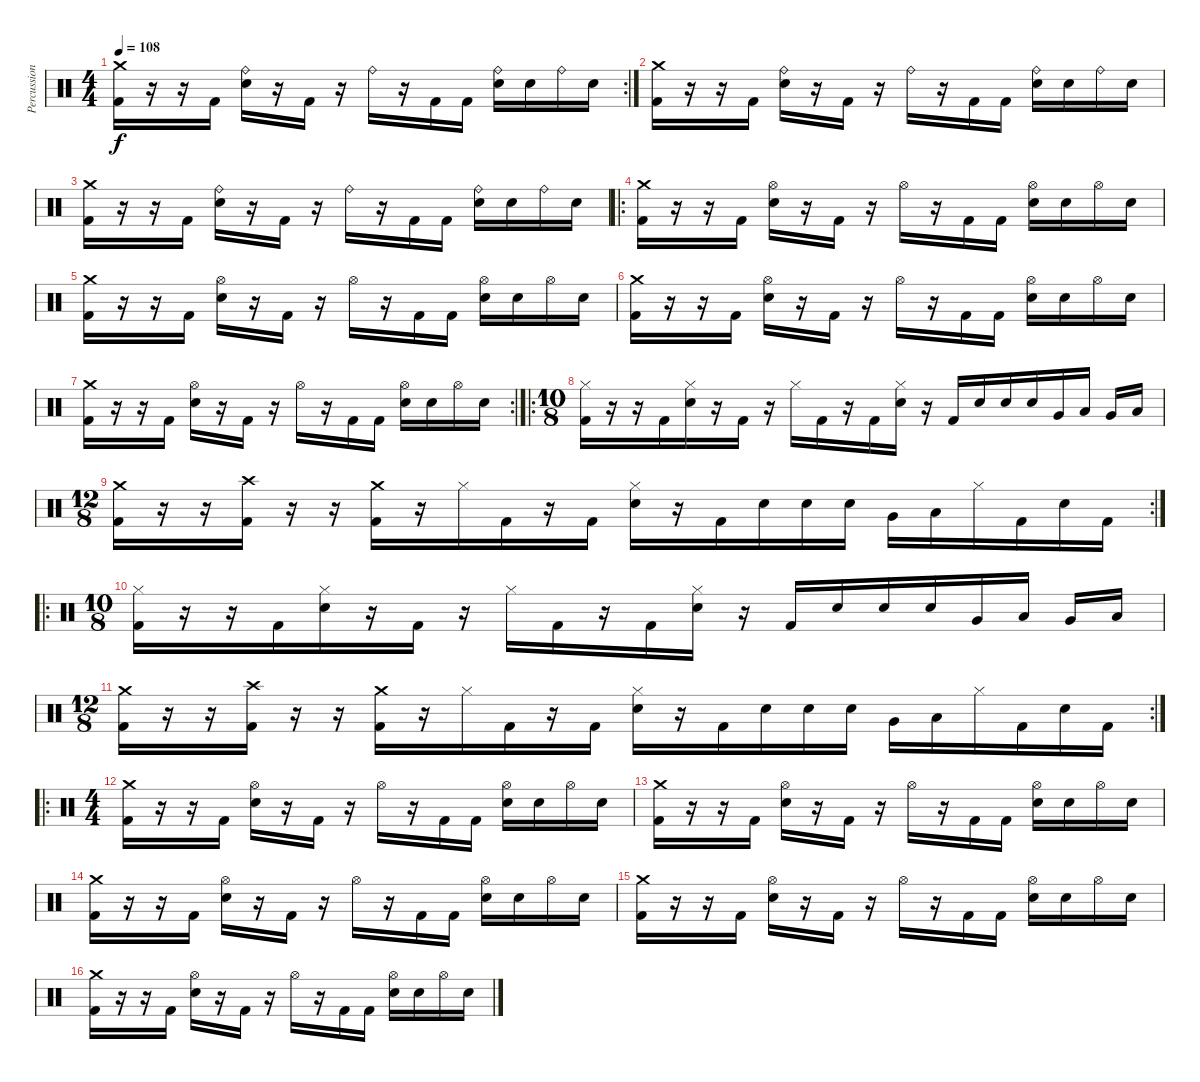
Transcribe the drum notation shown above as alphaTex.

\track ("Percussions" "Percussion") {instrument percussion}
\staff {score}
\articulation defaults
\rc 2
\ts (4 4)
\tempo 108
\clef neutral
\ks c
("Kick (hit) 2" "Crash medium (hit)").16{dy f} r.16 r.16 "Kick (hit) 2".16 ("Electric Snare (hit)" "Ride (bell)").16 r.16 "Kick (hit) 2".16 r.16 "Ride (bell)".16 r.16 "Kick (hit) 2".16 "Kick (hit) 2".16 ("Electric Snare (hit)" "Ride (bell)").16 "Electric Snare (hit)".16 "Ride (bell)".16 "Electric Snare (hit)".16 |
("Kick (hit) 2" "Crash medium (hit)").16 r.16 r.16 "Kick (hit) 2".16 ("Electric Snare (hit)" "Ride (bell)").16 r.16 "Kick (hit) 2".16 r.16 "Ride (bell)".16 r.16 "Kick (hit) 2".16 "Kick (hit) 2".16 ("Electric Snare (hit)" "Ride (bell)").16 "Electric Snare (hit)".16 "Ride (bell)".16 "Electric Snare (hit)".16 |
("Kick (hit) 2" "Crash medium (hit)").16 r.16 r.16 "Kick (hit) 2".16 ("Electric Snare (hit)" "Ride (bell)").16 r.16 "Kick (hit) 2".16 r.16 "Ride (bell)".16 r.16 "Kick (hit) 2".16 "Kick (hit) 2".16 ("Electric Snare (hit)" "Ride (bell)").16 "Electric Snare (hit)".16 "Ride (bell)".16 "Electric Snare (hit)".16 |
\ro
("Kick (hit) 2" "Crash medium (hit)").16 r.16 r.16 "Kick (hit) 2".16 ("Electric Snare (hit)" "Hi-Hat (open)").16 r.16 "Kick (hit) 2".16 r.16 "Hi-Hat (open)".16 r.16 "Kick (hit) 2".16 "Kick (hit) 2".16 ("Electric Snare (hit)" "Hi-Hat (open)").16 "Electric Snare (hit)".16 "Hi-Hat (open)".16 "Electric Snare (hit)".16 |
("Kick (hit) 2" "Crash medium (hit)").16 r.16 r.16 "Kick (hit) 2".16 ("Electric Snare (hit)" "Hi-Hat (open)").16 r.16 "Kick (hit) 2".16 r.16 "Hi-Hat (open)".16 r.16 "Kick (hit) 2".16 "Kick (hit) 2".16 ("Electric Snare (hit)" "Hi-Hat (open)").16 "Electric Snare (hit)".16 "Hi-Hat (open)".16 "Electric Snare (hit)".16 |
("Kick (hit) 2" "Crash medium (hit)").16 r.16 r.16 "Kick (hit) 2".16 ("Electric Snare (hit)" "Hi-Hat (open)").16 r.16 "Kick (hit) 2".16 r.16 "Hi-Hat (open)".16 r.16 "Kick (hit) 2".16 "Kick (hit) 2".16 ("Electric Snare (hit)" "Hi-Hat (open)").16 "Electric Snare (hit)".16 "Hi-Hat (open)".16 "Electric Snare (hit)".16 |
\rc 2
("Kick (hit) 2" "Crash medium (hit)").16 r.16 r.16 "Kick (hit) 2".16 ("Electric Snare (hit)" "Hi-Hat (open)").16 r.16 "Kick (hit) 2".16 r.16 "Hi-Hat (open)".16 r.16 "Kick (hit) 2".16 "Kick (hit) 2".16 ("Electric Snare (hit)" "Hi-Hat (open)").16 "Electric Snare (hit)".16 "Hi-Hat (open)".16 "Electric Snare (hit)".16 |
\ro
\ts (10 8)
("Kick (hit) 2" "Hi-Hat (closed)").16 r.16 r.16 "Kick (hit) 2".16 ("Electric Snare (hit)" "Hi-Hat (closed)").16 r.16 "Kick (hit) 2".16 r.16 "Hi-Hat (closed)".16 "Kick (hit) 2".16 r.16 "Kick (hit) 2".16 ("Electric Snare (hit)" "Hi-Hat (closed)").16 r.16 "Kick (hit) 2".16 "Electric Snare (hit)".16 "Electric Snare (hit)".16 "Electric Snare (hit)".16 "Very Low Tom (hit)".16 "Low Floor Tom (hit)".16 "Very Low Tom (hit)".16 "Low Tom (hit)".16 |
\rc 2
\ts (12 8)
("Crash medium (hit)" "Kick (hit) 2").16 r.16 r.16 ("Crash high (hit)" "Kick (hit) 2").16 r.16 r.16 ("Kick (hit) 2" "Crash medium (hit)").16 r.16 "Hi-Hat (closed)".16 "Kick (hit) 2".16 r.16 "Kick (hit) 2".16 ("Electric Snare (hit)" "Hi-Hat (closed)").16 r.16 "Kick (hit) 2".16 "Electric Snare (hit)".16 "Electric Snare (hit)".16 "Electric Snare (hit)".16 "Very Low Tom (hit)".16 "Low Floor Tom (hit)".16 "Hi-Hat (closed)".16 "Kick (hit) 2".16 "Electric Snare (hit)".16 "Kick (hit) 2".16 |
\ro
\ts (10 8)
("Kick (hit) 2" "Hi-Hat (closed)").16 r.16 r.16 "Kick (hit) 2".16 ("Electric Snare (hit)" "Hi-Hat (closed)").16 r.16 "Kick (hit) 2".16 r.16 "Hi-Hat (closed)".16 "Kick (hit) 2".16 r.16 "Kick (hit) 2".16 ("Electric Snare (hit)" "Hi-Hat (closed)").16 r.16 "Kick (hit) 2".16 "Electric Snare (hit)".16 "Electric Snare (hit)".16 "Electric Snare (hit)".16 "Very Low Tom (hit)".16 "Low Floor Tom (hit)".16 "Very Low Tom (hit)".16 "Low Tom (hit)".16 |
\rc 2
\ts (12 8)
("Crash medium (hit)" "Kick (hit) 2").16 r.16 r.16 ("Crash high (hit)" "Kick (hit) 2").16 r.16 r.16 ("Kick (hit) 2" "Crash medium (hit)").16 r.16 "Hi-Hat (closed)".16 "Kick (hit) 2".16 r.16 "Kick (hit) 2".16 ("Electric Snare (hit)" "Hi-Hat (closed)").16 r.16 "Kick (hit) 2".16 "Electric Snare (hit)".16 "Electric Snare (hit)".16 "Electric Snare (hit)".16 "Very Low Tom (hit)".16 "Low Floor Tom (hit)".16 "Hi-Hat (closed)".16 "Kick (hit) 2".16 "Electric Snare (hit)".16 "Kick (hit) 2".16 |
\ro
\ts (4 4)
("Kick (hit) 2" "Crash medium (hit)").16 r.16 r.16 "Kick (hit) 2".16 ("Electric Snare (hit)" "Hi-Hat (open)").16 r.16 "Kick (hit) 2".16 r.16 "Hi-Hat (open)".16 r.16 "Kick (hit) 2".16 "Kick (hit) 2".16 ("Electric Snare (hit)" "Hi-Hat (open)").16 "Electric Snare (hit)".16 "Hi-Hat (open)".16 "Electric Snare (hit)".16 |
("Kick (hit) 2" "Crash medium (hit)").16 r.16 r.16 "Kick (hit) 2".16 ("Electric Snare (hit)" "Hi-Hat (open)").16 r.16 "Kick (hit) 2".16 r.16 "Hi-Hat (open)".16 r.16 "Kick (hit) 2".16 "Kick (hit) 2".16 ("Electric Snare (hit)" "Hi-Hat (open)").16 "Electric Snare (hit)".16 "Hi-Hat (open)".16 "Electric Snare (hit)".16 |
("Kick (hit) 2" "Crash medium (hit)").16 r.16 r.16 "Kick (hit) 2".16 ("Electric Snare (hit)" "Hi-Hat (open)").16 r.16 "Kick (hit) 2".16 r.16 "Hi-Hat (open)".16 r.16 "Kick (hit) 2".16 "Kick (hit) 2".16 ("Electric Snare (hit)" "Hi-Hat (open)").16 "Electric Snare (hit)".16 "Hi-Hat (open)".16 "Electric Snare (hit)".16 |
("Kick (hit) 2" "Crash medium (hit)").16 r.16 r.16 "Kick (hit) 2".16 ("Electric Snare (hit)" "Hi-Hat (open)").16 r.16 "Kick (hit) 2".16 r.16 "Hi-Hat (open)".16 r.16 "Kick (hit) 2".16 "Kick (hit) 2".16 ("Electric Snare (hit)" "Hi-Hat (open)").16 "Electric Snare (hit)".16 "Hi-Hat (open)".16 "Electric Snare (hit)".16 |
("Kick (hit) 2" "Crash medium (hit)").16 r.16 r.16 "Kick (hit) 2".16 ("Electric Snare (hit)" "Hi-Hat (open)").16 r.16 "Kick (hit) 2".16 r.16 "Hi-Hat (open)".16 r.16 "Kick (hit) 2".16 "Kick (hit) 2".16 ("Electric Snare (hit)" "Hi-Hat (open)").16 "Electric Snare (hit)".16 "Hi-Hat (open)".16 "Electric Snare (hit)".16
